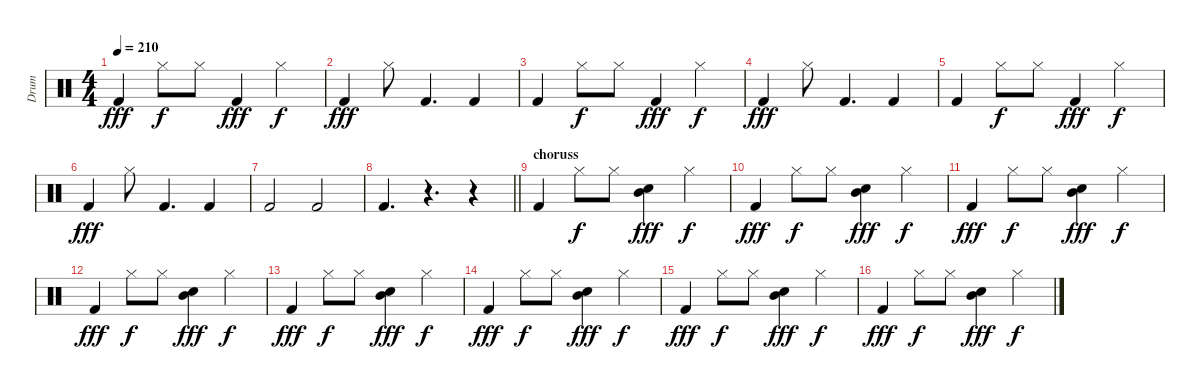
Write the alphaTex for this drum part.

\track ("Drum" "Drum") {instrument percussion}
\staff {score}
\articulation defaults
\ts (4 4)
\tempo 210
\clef neutral
\ks c "Kick (hit) 2".4{dy fff} "Hi-Hat (closed)".8{dy f} "Hi-Hat (closed)".8 "Kick (hit) 2".4{dy fff} "Hi-Hat (closed)".4{dy f}
|
"Kick (hit) 2".4{dy fff} "Hi-Hat (closed)".8 "Kick (hit) 2".4{d} "Kick (hit) 2".4 |
"Kick (hit) 2".4 "Hi-Hat (closed)".8{dy f} "Hi-Hat (closed)".8 "Kick (hit) 2".4{dy fff} "Hi-Hat (closed)".4{dy f} |
"Kick (hit) 2".4{dy fff} "Hi-Hat (closed)".8 "Kick (hit) 2".4{d} "Kick (hit) 2".4 |
"Kick (hit) 2".4 "Hi-Hat (closed)".8{dy f} "Hi-Hat (closed)".8 "Kick (hit) 2".4{dy fff} "Hi-Hat (closed)".4{dy f} |
"Kick (hit) 2".4{dy fff} "Hi-Hat (closed)".8 "Kick (hit) 2".4{d} "Kick (hit) 2".4 |
"Kick (hit) 2".2 "Kick (hit) 2".2 |
\barLineRight lightlight "Kick (hit) 2".4{d}
r.4{d} r.4 |
\section ("" "choruss")
"Kick (hit) 2".4 "Hi-Hat (closed)".8{dy f} "Hi-Hat (closed)".8 ("Snare (hit) 2" "Mid Tom (hit)").4{dy fff} "Hi-Hat (closed)".4{dy f} |
"Kick (hit) 2".4{dy fff} "Hi-Hat (closed)".8{dy f} "Hi-Hat (closed)".8 ("Snare (hit) 2" "Mid Tom (hit)").4{dy fff} "Hi-Hat (closed)".4{dy f} |
"Kick (hit) 2".4{dy fff} "Hi-Hat (closed)".8{dy f} "Hi-Hat (closed)".8 ("Snare (hit) 2" "Mid Tom (hit)").4{dy fff} "Hi-Hat (closed)".4{dy f} |
"Kick (hit) 2".4{dy fff} "Hi-Hat (closed)".8{dy f} "Hi-Hat (closed)".8 ("Snare (hit) 2" "Mid Tom (hit)").4{dy fff} "Hi-Hat (closed)".4{dy f} |
"Kick (hit) 2".4{dy fff} "Hi-Hat (closed)".8{dy f} "Hi-Hat (closed)".8 ("Snare (hit) 2" "Mid Tom (hit)").4{dy fff} "Hi-Hat (closed)".4{dy f} |
"Kick (hit) 2".4{dy fff} "Hi-Hat (closed)".8{dy f} "Hi-Hat (closed)".8 ("Snare (hit) 2" "Mid Tom (hit)").4{dy fff} "Hi-Hat (closed)".4{dy f} |
"Kick (hit) 2".4{dy fff} "Hi-Hat (closed)".8{dy f} "Hi-Hat (closed)".8 ("Snare (hit) 2" "Mid Tom (hit)").4{dy fff} "Hi-Hat (closed)".4{dy f} |
"Kick (hit) 2".4{dy fff} "Hi-Hat (closed)".8{dy f} "Hi-Hat (closed)".8 ("Snare (hit) 2" "Mid Tom (hit)").4{dy fff} "Hi-Hat (closed)".4{dy f}
